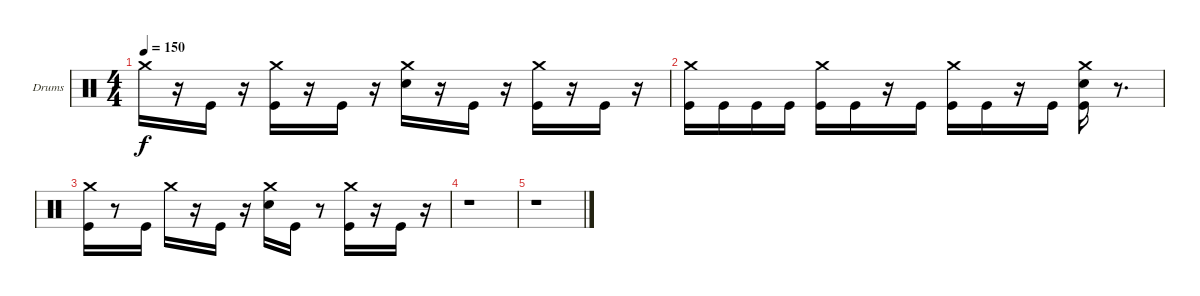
\bracketExtendMode groupsimilarinstruments
\firstSystemTrackNameOrientation horizontal
\otherSystemsTrackNameOrientation horizontal
\track ("Rolo" "Drums") {instrument percussion}
\staff {score}
\articulation defaults
\ts (4 4)
\tempo 150
\clef neutral
\ks c "Crash medium (hit)".16{dy f}
r.16 "Kick (hit)".16 r.16 ("Crash medium (hit)" "Kick (hit)").16 r.16 "Kick (hit)".16 r.16 ("Crash medium (hit)" "Snare (hit) 2").16 r.16 "Kick (hit)".16 r.16 ("Crash medium (hit)" "Kick (hit)").16 r.16 "Kick (hit)".16 r.16 |
("Crash medium (hit)" "Kick (hit)").16 "Kick (hit)".16 "Kick (hit)".16 "Kick (hit)".16 ("Crash medium (hit)" "Kick (hit)").16 "Kick (hit)".16 r.16 "Kick (hit)".16 ("Crash medium (hit)" "Kick (hit)").16 "Kick (hit)".16 r.16 "Kick (hit)".16 ("Crash medium (hit)" "Snare (hit) 2" "Kick (hit)").16 r.8{d} |
("Crash medium (hit)" "Kick (hit)").16 r.8 "Kick (hit)".16 "Crash medium (hit)".16 r.16 "Kick (hit)".16 r.16 ("Crash medium (hit)" "Snare (hit) 2").16 "Kick (hit)".16 r.8 ("Crash medium (hit)" "Kick (hit)").16 r.16 "Kick (hit)".16 r.16 |
r.1 |
r.1
